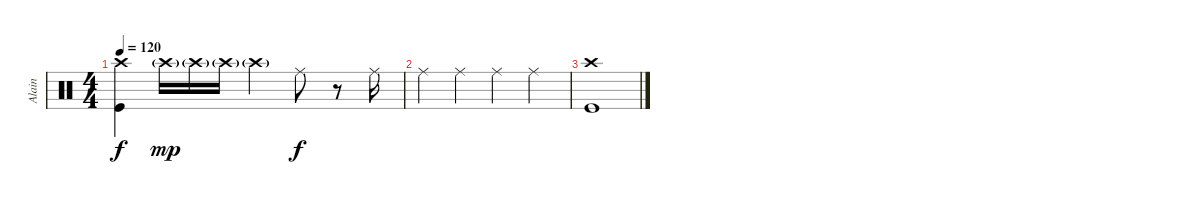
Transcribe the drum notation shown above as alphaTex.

\track ("Alain" "Alain") {instrument percussion}
\staff {score}
\articulation defaults
\ts (4 4)
\tempo 120
\clef neutral
\ks c
("Crash high (hit)" "Kick (hit)").4{dy f} "Crash high (hit)"{g}.16{dy mp} "Crash high (hit)"{g}.16 "Crash high (hit)"{g}.16 "Crash high (hit)"{g}.4 "Ride (middle)".8{dy f} r.8 "Ride (middle)".16 |
"Ride (middle)".4 "Ride (middle)".4 "Ride (middle)".4 "Ride (middle)".4 |
("Crash high (hit)" "Kick (hit)").1
